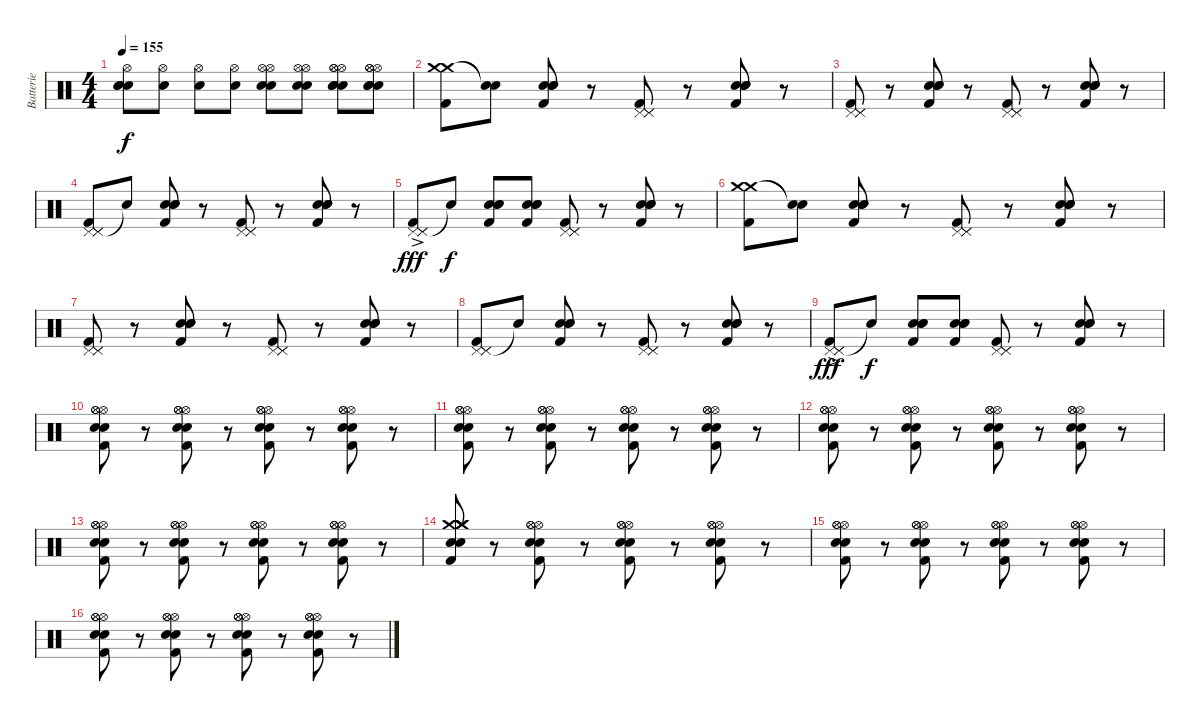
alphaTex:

\track ("Batterie" "Batterie") {instrument percussion}
\staff {score}
\articulation defaults
\ts (4 4)
\tempo 155
\clef neutral
\ks c
("Hi-Hat (open)" "Electric Snare (hit)" "Snare (hit)"{t} "Snare (hit)"{t}).8{dy f} ("Hi-Hat (open)" "Electric Snare (hit)").8 ("Hi-Hat (open)" "Electric Snare (hit)").8 ("Hi-Hat (open)" "Electric Snare (hit)").8 ("Hi-Hat (open)" "Hi-Hat (open)" "Electric Snare (hit)" "Electric Snare (hit)").8 ("Hi-Hat (open)" "Hi-Hat (open)" "Electric Snare (hit)" "Electric Snare (hit)").8 ("Hi-Hat (open)" "Hi-Hat (open)" "Hi-Hat (open)" "Electric Snare (hit)" "Electric Snare (hit)" "Electric Snare (hit)").8 ("Hi-Hat (open)" "Hi-Hat (open)" "Hi-Hat (open)" "Electric Snare (hit)" "Electric Snare (hit)" "Electric Snare (hit)").8 |
("Crash medium (hit)" "Crash medium (hit)" "Kick (hit) 2").8 ("Snare (hit)"{t} "Snare (hit)"{t}).8 ("Electric Snare (hit)" "Electric Snare (hit)" "Electric Snare (hit)" "Kick (hit) 2").8 r.8 ("Pedal Hi-Hat (hit)" "Pedal Hi-Hat (hit)" "Pedal Hi-Hat (hit)" "Kick (hit) 2").8 r.8 ("Electric Snare (hit)" "Electric Snare (hit)" "Electric Snare (hit)" "Kick (hit) 2").8 r.8 |
("Pedal Hi-Hat (hit)" "Pedal Hi-Hat (hit)" "Pedal Hi-Hat (hit)" "Kick (hit) 2").8 r.8 ("Electric Snare (hit)" "Electric Snare (hit)" "Electric Snare (hit)" "Kick (hit) 2").8 r.8 ("Pedal Hi-Hat (hit)" "Pedal Hi-Hat (hit)" "Pedal Hi-Hat (hit)" "Kick (hit) 2").8 r.8 ("Electric Snare (hit)" "Electric Snare (hit)" "Electric Snare (hit)" "Kick (hit) 2").8 r.8 |
("Pedal Hi-Hat (hit)" "Pedal Hi-Hat (hit)" "Pedal Hi-Hat (hit)" "Kick (hit) 2").8 "Snare (hit)"{t}.8 ("Electric Snare (hit)" "Electric Snare (hit)" "Electric Snare (hit)" "Kick (hit) 2").8 r.8 ("Pedal Hi-Hat (hit)" "Pedal Hi-Hat (hit)" "Pedal Hi-Hat (hit)" "Kick (hit) 2").8 r.8 ("Electric Snare (hit)" "Electric Snare (hit)" "Electric Snare (hit)" "Kick (hit) 2").8 r.8 |
("Pedal Hi-Hat (hit)"{ac} "Pedal Hi-Hat (hit)" "Pedal Hi-Hat (hit)" "Kick (hit) 2").8{dy fff} "Snare (hit)"{t}.8{dy f} ("Electric Snare (hit)" "Electric Snare (hit)" "Electric Snare (hit)" "Kick (hit) 2").8 ("Electric Snare (hit)" "Electric Snare (hit)" "Electric Snare (hit)" "Kick (hit) 2").8 ("Pedal Hi-Hat (hit)" "Pedal Hi-Hat (hit)" "Pedal Hi-Hat (hit)" "Kick (hit) 2").8 r.8 ("Electric Snare (hit)" "Electric Snare (hit)" "Electric Snare (hit)" "Kick (hit) 2").8 r.8 |
("Crash medium (hit)" "Crash medium (hit)" "Kick (hit) 2").8 ("Snare (hit)"{t} "Snare (hit)"{t}).8 ("Electric Snare (hit)" "Electric Snare (hit)" "Electric Snare (hit)" "Kick (hit) 2").8 r.8 ("Pedal Hi-Hat (hit)" "Pedal Hi-Hat (hit)" "Pedal Hi-Hat (hit)" "Kick (hit) 2").8 r.8 ("Electric Snare (hit)" "Electric Snare (hit)" "Electric Snare (hit)" "Kick (hit) 2").8 r.8 |
("Pedal Hi-Hat (hit)" "Pedal Hi-Hat (hit)" "Pedal Hi-Hat (hit)" "Kick (hit) 2").8 r.8 ("Electric Snare (hit)" "Electric Snare (hit)" "Electric Snare (hit)" "Kick (hit) 2").8 r.8 ("Pedal Hi-Hat (hit)" "Pedal Hi-Hat (hit)" "Pedal Hi-Hat (hit)" "Kick (hit) 2").8 r.8 ("Electric Snare (hit)" "Electric Snare (hit)" "Electric Snare (hit)" "Kick (hit) 2").8 r.8 |
("Pedal Hi-Hat (hit)" "Pedal Hi-Hat (hit)" "Pedal Hi-Hat (hit)" "Kick (hit) 2").8 "Snare (hit)"{t}.8 ("Electric Snare (hit)" "Electric Snare (hit)" "Electric Snare (hit)" "Kick (hit) 2").8 r.8 ("Pedal Hi-Hat (hit)" "Pedal Hi-Hat (hit)" "Pedal Hi-Hat (hit)" "Kick (hit) 2").8 r.8 ("Electric Snare (hit)" "Electric Snare (hit)" "Electric Snare (hit)" "Kick (hit) 2").8 r.8 |
("Pedal Hi-Hat (hit)"{ac} "Pedal Hi-Hat (hit)" "Pedal Hi-Hat (hit)" "Kick (hit) 2").8{dy fff} "Snare (hit)"{t}.8{dy f} ("Electric Snare (hit)" "Electric Snare (hit)" "Electric Snare (hit)" "Kick (hit) 2").8 ("Electric Snare (hit)" "Electric Snare (hit)" "Electric Snare (hit)" "Kick (hit) 2").8 ("Pedal Hi-Hat (hit)" "Pedal Hi-Hat (hit)" "Pedal Hi-Hat (hit)" "Kick (hit) 2").8 r.8 ("Electric Snare (hit)" "Electric Snare (hit)" "Electric Snare (hit)" "Kick (hit) 2").8 r.8 |
("Hi-Hat (open)" "Hi-Hat (open)" "Hi-Hat (open)" "Electric Snare (hit)" "Electric Snare (hit)" "Kick (hit) 2").8 r.8 ("Hi-Hat (open)" "Hi-Hat (open)" "Hi-Hat (open)" "Electric Snare (hit)" "Electric Snare (hit)" "Kick (hit) 2").8 r.8 ("Hi-Hat (open)" "Hi-Hat (open)" "Hi-Hat (open)" "Electric Snare (hit)" "Electric Snare (hit)" "Kick (hit) 2").8 r.8 ("Hi-Hat (open)" "Hi-Hat (open)" "Hi-Hat (open)" "Electric Snare (hit)" "Electric Snare (hit)" "Kick (hit) 2").8 r.8 |
("Hi-Hat (open)" "Hi-Hat (open)" "Hi-Hat (open)" "Electric Snare (hit)" "Electric Snare (hit)" "Kick (hit) 2").8 r.8 ("Hi-Hat (open)" "Hi-Hat (open)" "Hi-Hat (open)" "Electric Snare (hit)" "Electric Snare (hit)" "Kick (hit) 2").8 r.8 ("Hi-Hat (open)" "Hi-Hat (open)" "Hi-Hat (open)" "Electric Snare (hit)" "Electric Snare (hit)" "Kick (hit) 2").8 r.8 ("Hi-Hat (open)" "Hi-Hat (open)" "Hi-Hat (open)" "Electric Snare (hit)" "Electric Snare (hit)" "Kick (hit) 2").8 r.8 |
("Hi-Hat (open)" "Hi-Hat (open)" "Hi-Hat (open)" "Electric Snare (hit)" "Electric Snare (hit)" "Kick (hit) 2").8 r.8 ("Hi-Hat (open)" "Hi-Hat (open)" "Hi-Hat (open)" "Electric Snare (hit)" "Electric Snare (hit)" "Kick (hit) 2").8 r.8 ("Hi-Hat (open)" "Hi-Hat (open)" "Hi-Hat (open)" "Electric Snare (hit)" "Electric Snare (hit)" "Kick (hit) 2").8 r.8 ("Hi-Hat (open)" "Hi-Hat (open)" "Hi-Hat (open)" "Electric Snare (hit)" "Electric Snare (hit)" "Kick (hit) 2").8 r.8 |
("Hi-Hat (open)" "Hi-Hat (open)" "Hi-Hat (open)" "Electric Snare (hit)" "Electric Snare (hit)" "Kick (hit) 2").8 r.8 ("Hi-Hat (open)" "Hi-Hat (open)" "Hi-Hat (open)" "Electric Snare (hit)" "Electric Snare (hit)" "Kick (hit) 2").8 r.8 ("Hi-Hat (open)" "Hi-Hat (open)" "Hi-Hat (open)" "Electric Snare (hit)" "Electric Snare (hit)" "Kick (hit) 2").8 r.8 ("Hi-Hat (open)" "Hi-Hat (open)" "Hi-Hat (open)" "Electric Snare (hit)" "Electric Snare (hit)" "Kick (hit) 2").8 r.8 |
("Crash medium (hit)" "Crash medium (hit)" "Crash medium (hit)" "Electric Snare (hit)" "Electric Snare (hit)" "Kick (hit) 2").8 r.8 ("Hi-Hat (open)" "Hi-Hat (open)" "Hi-Hat (open)" "Electric Snare (hit)" "Electric Snare (hit)" "Kick (hit) 2").8 r.8 ("Hi-Hat (open)" "Hi-Hat (open)" "Hi-Hat (open)" "Electric Snare (hit)" "Electric Snare (hit)" "Kick (hit) 2").8 r.8 ("Hi-Hat (open)" "Hi-Hat (open)" "Hi-Hat (open)" "Electric Snare (hit)" "Electric Snare (hit)" "Kick (hit) 2").8 r.8 |
("Hi-Hat (open)" "Hi-Hat (open)" "Hi-Hat (open)" "Electric Snare (hit)" "Electric Snare (hit)" "Kick (hit) 2").8 r.8 ("Hi-Hat (open)" "Hi-Hat (open)" "Hi-Hat (open)" "Electric Snare (hit)" "Electric Snare (hit)" "Kick (hit) 2").8 r.8 ("Hi-Hat (open)" "Hi-Hat (open)" "Hi-Hat (open)" "Electric Snare (hit)" "Electric Snare (hit)" "Kick (hit) 2").8 r.8 ("Hi-Hat (open)" "Hi-Hat (open)" "Hi-Hat (open)" "Electric Snare (hit)" "Electric Snare (hit)" "Kick (hit) 2").8 r.8 |
("Hi-Hat (open)" "Hi-Hat (open)" "Hi-Hat (open)" "Electric Snare (hit)" "Electric Snare (hit)" "Kick (hit) 2").8 r.8 ("Hi-Hat (open)" "Hi-Hat (open)" "Hi-Hat (open)" "Electric Snare (hit)" "Electric Snare (hit)" "Kick (hit) 2").8 r.8 ("Hi-Hat (open)" "Hi-Hat (open)" "Hi-Hat (open)" "Electric Snare (hit)" "Electric Snare (hit)" "Kick (hit) 2").8 r.8 ("Hi-Hat (open)" "Hi-Hat (open)" "Hi-Hat (open)" "Electric Snare (hit)" "Electric Snare (hit)" "Kick (hit) 2").8 r.8
